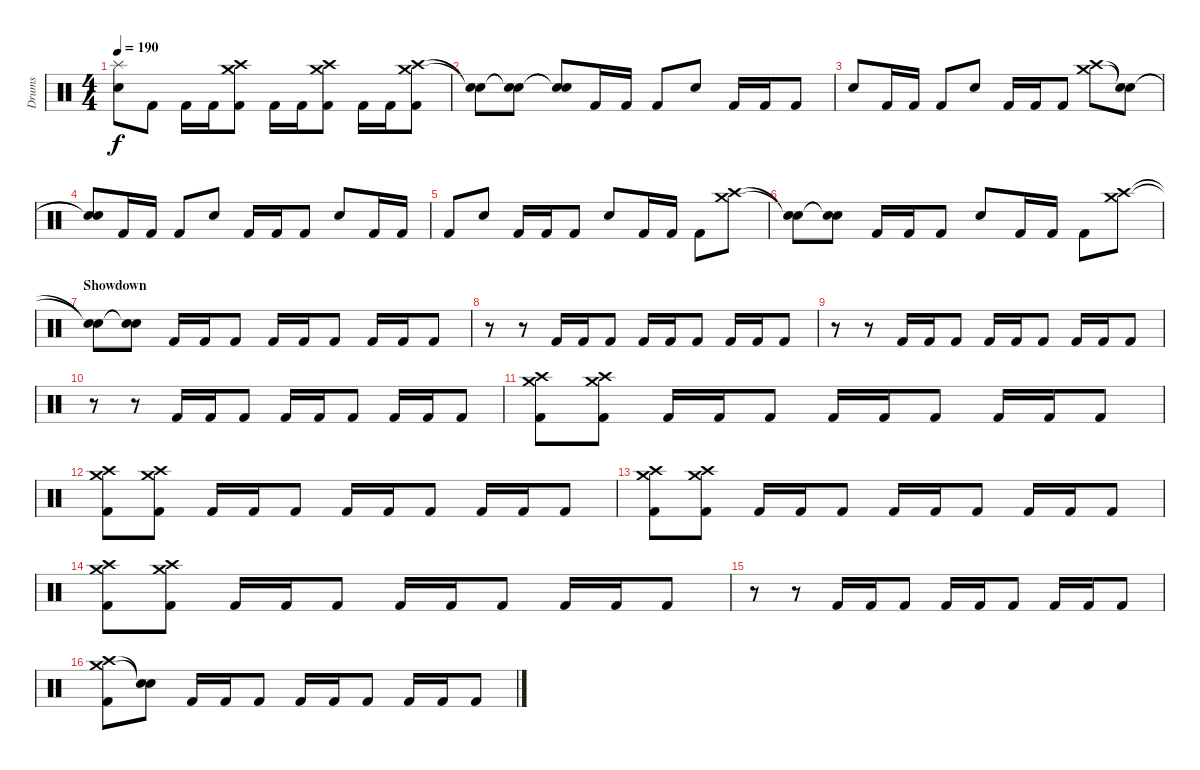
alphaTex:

\track ("Drums" "Drums") {instrument percussion}
\staff {score}
\articulation defaults
\ts (4 4)
\tempo 190
\clef neutral
\ks c
("Splash (hit)" "Snare (hit) 2").8{dy f} "Kick (hit) 2".8 "Kick (hit) 2".16 "Kick (hit) 2".16 ("Crash medium (hit)" "Crash high (hit)" "Kick (hit) 2").8 "Kick (hit) 2".16 "Kick (hit) 2".16 ("Crash medium (hit)" "Crash high (hit)" "Kick (hit) 2").8 "Kick (hit) 2".16 "Kick (hit) 2".16 ("Crash medium (hit)" "Crash high (hit)" "Kick (hit) 2").8 |
("Snare (hit)"{t} "Snare (hit)"{t}).8 ("Snare (hit)"{t} "Snare (hit)"{t}).8 ("Snare (hit)"{t} "Snare (hit)"{t}).8 "Kick (hit) 2".16 "Kick (hit) 2".16 "Kick (hit) 2".8 "Snare (hit) 2".8 "Kick (hit) 2".16 "Kick (hit) 2".16 "Kick (hit) 2".8 |
"Snare (hit) 2".8 "Kick (hit) 2".16 "Kick (hit) 2".16 "Kick (hit) 2".8 "Snare (hit) 2".8 "Kick (hit) 2".16 "Kick (hit) 2".16 "Kick (hit) 2".8 ("Crash medium (hit)" "Crash high (hit)").8 ("Snare (hit)"{t} "Snare (hit)"{t}).8 |
("Snare (hit)"{t} "Snare (hit)"{t}).8 "Kick (hit) 2".16 "Kick (hit) 2".16 "Kick (hit) 2".8 "Snare (hit) 2".8 "Kick (hit) 2".16 "Kick (hit) 2".16 "Kick (hit) 2".8 "Snare (hit) 2".8 "Kick (hit) 2".16 "Kick (hit) 2".16 |
"Kick (hit) 2".8 "Snare (hit) 2".8 "Kick (hit) 2".16 "Kick (hit) 2".16 "Kick (hit) 2".8 "Snare (hit) 2".8 "Kick (hit) 2".16 "Kick (hit) 2".16 "Kick (hit) 2".8 ("Crash medium (hit)" "Crash high (hit)").8 |
("Snare (hit)"{t} "Snare (hit)"{t}).8 ("Snare (hit)"{t} "Snare (hit)"{t}).8 "Kick (hit) 2".16 "Kick (hit) 2".16 "Kick (hit) 2".8 "Snare (hit) 2".8 "Kick (hit) 2".16 "Kick (hit) 2".16 "Kick (hit) 2".8 ("Crash medium (hit)" "Crash high (hit)").8 |
\section ("" "Showdown")
("Snare (hit)"{t} "Snare (hit)"{t}).8 ("Snare (hit)"{t} "Snare (hit)"{t}).8 "Kick (hit) 2".16 "Kick (hit) 2".16 "Kick (hit) 2".8 "Kick (hit) 2".16 "Kick (hit) 2".16 "Kick (hit) 2".8 "Kick (hit) 2".16 "Kick (hit) 2".16 "Kick (hit) 2".8 |
r.8 r.8 "Kick (hit) 2".16 "Kick (hit) 2".16 "Kick (hit) 2".8 "Kick (hit) 2".16 "Kick (hit) 2".16 "Kick (hit) 2".8 "Kick (hit) 2".16 "Kick (hit) 2".16 "Kick (hit) 2".8 |
r.8 r.8 "Kick (hit) 2".16 "Kick (hit) 2".16 "Kick (hit) 2".8 "Kick (hit) 2".16 "Kick (hit) 2".16 "Kick (hit) 2".8 "Kick (hit) 2".16 "Kick (hit) 2".16 "Kick (hit) 2".8 |
r.8 r.8 "Kick (hit) 2".16 "Kick (hit) 2".16 "Kick (hit) 2".8 "Kick (hit) 2".16 "Kick (hit) 2".16 "Kick (hit) 2".8 "Kick (hit) 2".16 "Kick (hit) 2".16 "Kick (hit) 2".8 |
("Crash medium (hit)" "Crash high (hit)" "Kick (hit) 2").8 ("Crash medium (hit)" "Crash high (hit)" "Kick (hit) 2").8 "Kick (hit) 2".16 "Kick (hit) 2".16 "Kick (hit) 2".8 "Kick (hit) 2".16 "Kick (hit) 2".16 "Kick (hit) 2".8 "Kick (hit) 2".16 "Kick (hit) 2".16 "Kick (hit) 2".8 |
("Crash medium (hit)" "Crash high (hit)" "Kick (hit) 2").8 ("Crash medium (hit)" "Crash high (hit)" "Kick (hit) 2").8 "Kick (hit) 2".16 "Kick (hit) 2".16 "Kick (hit) 2".8 "Kick (hit) 2".16 "Kick (hit) 2".16 "Kick (hit) 2".8 "Kick (hit) 2".16 "Kick (hit) 2".16 "Kick (hit) 2".8 |
("Crash medium (hit)" "Crash high (hit)" "Kick (hit) 2").8 ("Crash medium (hit)" "Crash high (hit)" "Kick (hit) 2").8 "Kick (hit) 2".16 "Kick (hit) 2".16 "Kick (hit) 2".8 "Kick (hit) 2".16 "Kick (hit) 2".16 "Kick (hit) 2".8 "Kick (hit) 2".16 "Kick (hit) 2".16 "Kick (hit) 2".8 |
("Crash medium (hit)" "Crash high (hit)" "Kick (hit) 2").8 ("Crash medium (hit)" "Crash high (hit)" "Kick (hit) 2").8 "Kick (hit) 2".16 "Kick (hit) 2".16 "Kick (hit) 2".8 "Kick (hit) 2".16 "Kick (hit) 2".16 "Kick (hit) 2".8 "Kick (hit) 2".16 "Kick (hit) 2".16 "Kick (hit) 2".8 |
r.8 r.8 "Kick (hit) 2".16 "Kick (hit) 2".16 "Kick (hit) 2".8 "Kick (hit) 2".16 "Kick (hit) 2".16 "Kick (hit) 2".8 "Kick (hit) 2".16 "Kick (hit) 2".16 "Kick (hit) 2".8 |
("Crash medium (hit)" "Crash high (hit)" "Kick (hit) 2").8 ("Snare (hit)"{t} "Snare (hit)"{t}).8 "Kick (hit) 2".16 "Kick (hit) 2".16 "Kick (hit) 2".8 "Kick (hit) 2".16 "Kick (hit) 2".16 "Kick (hit) 2".8 "Kick (hit) 2".16 "Kick (hit) 2".16 "Kick (hit) 2".8
